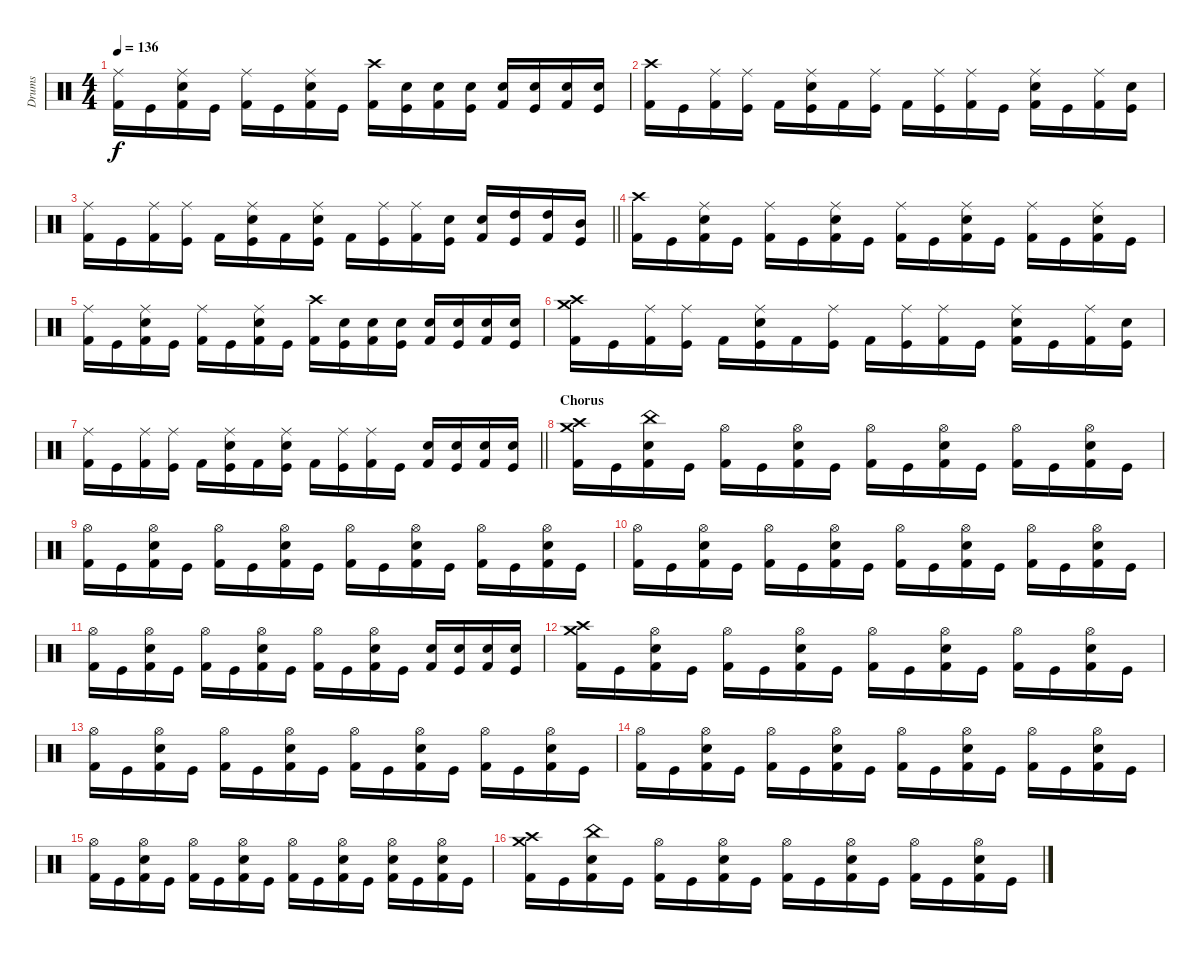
\track ("Drums" "Drums") {instrument percussion}
\staff {score}
\articulation defaults
\ts (4 4)
\tempo 136
\clef neutral
\ks c
("Kick (hit) 2" "Ride (middle)").16{dy f} "Kick (hit)".16 ("Kick (hit) 2" "Snare (hit) 2" "Ride (middle)").16 "Kick (hit)".16 ("Kick (hit) 2" "Ride (middle)").16 "Kick (hit)".16 ("Kick (hit) 2" "Snare (hit) 2" "Ride (middle)").16 "Kick (hit)".16 ("Kick (hit) 2" "Crash high (hit)").16 ("Kick (hit)" "Snare (hit) 2").16 ("Kick (hit) 2" "Snare (hit) 2").16 ("Kick (hit)" "Snare (hit) 2").16 ("Kick (hit) 2" "Snare (hit) 2").16 ("Kick (hit)" "Snare (hit) 2").16 ("Kick (hit) 2" "Snare (hit) 2").16 ("Kick (hit)" "Snare (hit) 2").16 |
("Kick (hit) 2" "Crash high (hit)").16 "Kick (hit)".16 ("Kick (hit) 2" "Ride (middle)").16 ("Kick (hit)" "Ride (middle)").16 "Kick (hit) 2".16 ("Kick (hit)" "Snare (hit) 2" "Ride (middle)").16 "Kick (hit) 2".16 ("Kick (hit)" "Ride (middle)").16 "Kick (hit) 2".16 ("Kick (hit)" "Ride (middle)").16 ("Kick (hit) 2" "Ride (middle)").16 "Kick (hit)".16 ("Kick (hit) 2" "Snare (hit) 2" "Ride (middle)").16 "Kick (hit)".16 ("Kick (hit) 2" "Ride (middle)").16 ("Kick (hit)" "Snare (hit) 2").16 |
\barLineRight lightlight
("Kick (hit) 2" "Ride (middle)").16 "Kick (hit)".16 ("Kick (hit) 2" "Ride (middle)").16 ("Kick (hit)" "Ride (middle)").16 "Kick (hit) 2".16 ("Kick (hit)" "Snare (hit) 2" "Ride (middle)").16 "Kick (hit) 2".16 ("Kick (hit)" "Snare (hit) 2" "Ride (middle)").16 "Kick (hit) 2".16 ("Kick (hit)" "Ride (middle)").16 ("Kick (hit) 2" "Ride (middle)").16 ("Kick (hit)" "Snare (hit) 2").16 ("Kick (hit) 2" "Snare (hit) 2").16 ("Kick (hit)" "High Tom (hit)").16 ("Kick (hit) 2" "High Tom (hit)").16 ("Kick (hit)" "Mid Tom (hit)").16 |
("Kick (hit) 2" "Crash high (hit)").16 "Kick (hit)".16 ("Kick (hit) 2" "Snare (hit) 2" "Ride (middle)").16 "Kick (hit)".16 ("Kick (hit) 2" "Ride (middle)").16 "Kick (hit)".16 ("Kick (hit) 2" "Snare (hit) 2" "Ride (middle)").16 "Kick (hit)".16 ("Kick (hit) 2" "Ride (middle)").16 "Kick (hit)".16 ("Kick (hit) 2" "Snare (hit) 2" "Ride (middle)").16 "Kick (hit)".16 ("Kick (hit) 2" "Ride (middle)").16 "Kick (hit)".16 ("Kick (hit) 2" "Snare (hit) 2" "Ride (middle)").16 "Kick (hit)".16 |
("Kick (hit) 2" "Ride (middle)").16 "Kick (hit)".16 ("Kick (hit) 2" "Snare (hit) 2" "Ride (middle)").16 "Kick (hit)".16 ("Kick (hit) 2" "Ride (middle)").16 "Kick (hit)".16 ("Kick (hit) 2" "Snare (hit) 2" "Ride (middle)").16 "Kick (hit)".16 ("Kick (hit) 2" "Crash high (hit)").16 ("Kick (hit)" "Snare (hit) 2").16 ("Kick (hit) 2" "Snare (hit) 2").16 ("Kick (hit)" "Snare (hit) 2").16 ("Kick (hit) 2" "Snare (hit) 2").16 ("Kick (hit)" "Snare (hit) 2").16 ("Kick (hit) 2" "Snare (hit) 2").16 ("Kick (hit)" "Snare (hit) 2").16 |
("Kick (hit) 2" "Crash high (hit)" "Crash medium (hit)").16 "Kick (hit)".16 ("Kick (hit) 2" "Ride (middle)").16 ("Kick (hit)" "Ride (middle)").16 "Kick (hit) 2".16 ("Kick (hit)" "Snare (hit) 2" "Ride (middle)").16 "Kick (hit) 2".16 ("Kick (hit)" "Ride (middle)").16 "Kick (hit) 2".16 ("Kick (hit)" "Ride (middle)").16 ("Kick (hit) 2" "Ride (middle)").16 "Kick (hit)".16 ("Kick (hit) 2" "Snare (hit) 2" "Ride (middle)").16 "Kick (hit)".16 ("Kick (hit) 2" "Ride (middle)").16 ("Kick (hit)" "Snare (hit) 2").16 |
\barLineRight lightlight
("Kick (hit) 2" "Ride (middle)").16 "Kick (hit)".16 ("Kick (hit) 2" "Ride (middle)").16 ("Kick (hit)" "Ride (middle)").16 "Kick (hit) 2".16 ("Kick (hit)" "Snare (hit) 2" "Ride (middle)").16 "Kick (hit) 2".16 ("Kick (hit)" "Snare (hit) 2" "Ride (middle)").16 "Kick (hit) 2".16 ("Kick (hit)" "Ride (middle)").16 ("Kick (hit) 2" "Ride (middle)").16 "Kick (hit)".16 ("Kick (hit) 2" "Snare (hit) 2").16 ("Kick (hit)" "Snare (hit) 2").16 ("Kick (hit) 2" "Snare (hit) 2").16 ("Kick (hit)" "Snare (hit) 2").16 |
\section ("" "Chorus")
("Kick (hit) 2" "Crash high (hit)" "Crash medium (hit)").16 "Kick (hit)".16 ("Kick (hit) 2" "Snare (hit) 2" "China (hit)").16 "Kick (hit)".16 ("Kick (hit) 2" "Hi-Hat (open)").16 "Kick (hit)".16 ("Kick (hit) 2" "Snare (hit) 2" "Hi-Hat (open)").16 "Kick (hit)".16 ("Kick (hit) 2" "Hi-Hat (open)").16 "Kick (hit)".16 ("Kick (hit) 2" "Snare (hit) 2" "Hi-Hat (open)").16 "Kick (hit)".16 ("Kick (hit) 2" "Hi-Hat (open)").16 "Kick (hit)".16 ("Kick (hit) 2" "Snare (hit) 2" "Hi-Hat (open)").16 "Kick (hit)".16 |
("Kick (hit) 2" "Hi-Hat (open)").16 "Kick (hit)".16 ("Kick (hit) 2" "Snare (hit) 2" "Hi-Hat (open)").16 "Kick (hit)".16 ("Kick (hit) 2" "Hi-Hat (open)").16 "Kick (hit)".16 ("Kick (hit) 2" "Snare (hit) 2" "Hi-Hat (open)").16 "Kick (hit)".16 ("Kick (hit) 2" "Hi-Hat (open)").16 "Kick (hit)".16 ("Kick (hit) 2" "Snare (hit) 2" "Hi-Hat (open)").16 "Kick (hit)".16 ("Kick (hit) 2" "Hi-Hat (open)").16 "Kick (hit)".16 ("Kick (hit) 2" "Snare (hit) 2" "Hi-Hat (open)").16 "Kick (hit)".16 |
("Kick (hit) 2" "Hi-Hat (open)").16 "Kick (hit)".16 ("Kick (hit) 2" "Snare (hit) 2" "Hi-Hat (open)").16 "Kick (hit)".16 ("Kick (hit) 2" "Hi-Hat (open)").16 "Kick (hit)".16 ("Kick (hit) 2" "Snare (hit) 2" "Hi-Hat (open)").16 "Kick (hit)".16 ("Kick (hit) 2" "Hi-Hat (open)").16 "Kick (hit)".16 ("Kick (hit) 2" "Snare (hit) 2" "Hi-Hat (open)").16 "Kick (hit)".16 ("Kick (hit) 2" "Hi-Hat (open)").16 "Kick (hit)".16 ("Kick (hit) 2" "Snare (hit) 2" "Hi-Hat (open)").16 "Kick (hit)".16 |
("Kick (hit) 2" "Hi-Hat (open)").16 "Kick (hit)".16 ("Kick (hit) 2" "Snare (hit) 2" "Hi-Hat (open)").16 "Kick (hit)".16 ("Kick (hit) 2" "Hi-Hat (open)").16 "Kick (hit)".16 ("Kick (hit) 2" "Snare (hit) 2" "Hi-Hat (open)").16 "Kick (hit)".16 ("Kick (hit) 2" "Hi-Hat (open)").16 "Kick (hit)".16 ("Kick (hit) 2" "Snare (hit) 2" "Hi-Hat (open)").16 "Kick (hit)".16 ("Kick (hit) 2" "Snare (hit) 2").16 ("Kick (hit)" "Snare (hit) 2").16 ("Kick (hit) 2" "Snare (hit) 2").16 ("Kick (hit)" "Snare (hit) 2").16 |
("Kick (hit) 2" "Crash high (hit)" "Crash medium (hit)").16 "Kick (hit)".16 ("Kick (hit) 2" "Snare (hit) 2" "Hi-Hat (open)").16 "Kick (hit)".16 ("Kick (hit) 2" "Hi-Hat (open)").16 "Kick (hit)".16 ("Kick (hit) 2" "Snare (hit) 2" "Hi-Hat (open)").16 "Kick (hit)".16 ("Kick (hit) 2" "Hi-Hat (open)").16 "Kick (hit)".16 ("Kick (hit) 2" "Snare (hit) 2" "Hi-Hat (open)").16 "Kick (hit)".16 ("Kick (hit) 2" "Hi-Hat (open)").16 "Kick (hit)".16 ("Kick (hit) 2" "Snare (hit) 2" "Hi-Hat (open)").16 "Kick (hit)".16 |
("Kick (hit) 2" "Hi-Hat (open)").16 "Kick (hit)".16 ("Kick (hit) 2" "Snare (hit) 2" "Hi-Hat (open)").16 "Kick (hit)".16 ("Kick (hit) 2" "Hi-Hat (open)").16 "Kick (hit)".16 ("Kick (hit) 2" "Snare (hit) 2" "Hi-Hat (open)").16 "Kick (hit)".16 ("Kick (hit) 2" "Hi-Hat (open)").16 "Kick (hit)".16 ("Kick (hit) 2" "Snare (hit) 2" "Hi-Hat (open)").16 "Kick (hit)".16 ("Kick (hit) 2" "Hi-Hat (open)").16 "Kick (hit)".16 ("Kick (hit) 2" "Snare (hit) 2" "Hi-Hat (open)").16 "Kick (hit)".16 |
("Kick (hit) 2" "Hi-Hat (open)").16 "Kick (hit)".16 ("Kick (hit) 2" "Snare (hit) 2" "Hi-Hat (open)").16 "Kick (hit)".16 ("Kick (hit) 2" "Hi-Hat (open)").16 "Kick (hit)".16 ("Kick (hit) 2" "Snare (hit) 2" "Hi-Hat (open)").16 "Kick (hit)".16 ("Kick (hit) 2" "Hi-Hat (open)").16 "Kick (hit)".16 ("Kick (hit) 2" "Snare (hit) 2" "Hi-Hat (open)").16 "Kick (hit)".16 ("Kick (hit) 2" "Hi-Hat (open)").16 "Kick (hit)".16 ("Kick (hit) 2" "Snare (hit) 2" "Hi-Hat (open)").16 "Kick (hit)".16 |
("Kick (hit) 2" "Hi-Hat (open)").16 "Kick (hit)".16 ("Kick (hit) 2" "Snare (hit) 2" "Hi-Hat (open)").16 "Kick (hit)".16 ("Kick (hit) 2" "Hi-Hat (open)").16 "Kick (hit)".16 ("Kick (hit) 2" "Snare (hit) 2" "Hi-Hat (open)").16 "Kick (hit)".16 ("Kick (hit) 2" "Hi-Hat (open)").16 "Kick (hit)".16 ("Kick (hit) 2" "Snare (hit) 2" "Hi-Hat (open)").16 "Kick (hit)".16 ("Kick (hit) 2" "Snare (hit) 2" "Hi-Hat (open)").16 "Kick (hit)".16 ("Kick (hit) 2" "Snare (hit) 2" "Hi-Hat (open)").16 "Kick (hit)".16 |
("Kick (hit) 2" "Crash high (hit)" "Crash medium (hit)").16 "Kick (hit)".16 ("Kick (hit) 2" "Snare (hit) 2" "China (hit)").16 "Kick (hit)".16 ("Kick (hit) 2" "Hi-Hat (open)").16 "Kick (hit)".16 ("Kick (hit) 2" "Snare (hit) 2" "Hi-Hat (open)").16 "Kick (hit)".16 ("Kick (hit) 2" "Hi-Hat (open)").16 "Kick (hit)".16 ("Kick (hit) 2" "Snare (hit) 2" "Hi-Hat (open)").16 "Kick (hit)".16 ("Kick (hit) 2" "Hi-Hat (open)").16 "Kick (hit)".16 ("Kick (hit) 2" "Snare (hit) 2" "Hi-Hat (open)").16 "Kick (hit)".16
